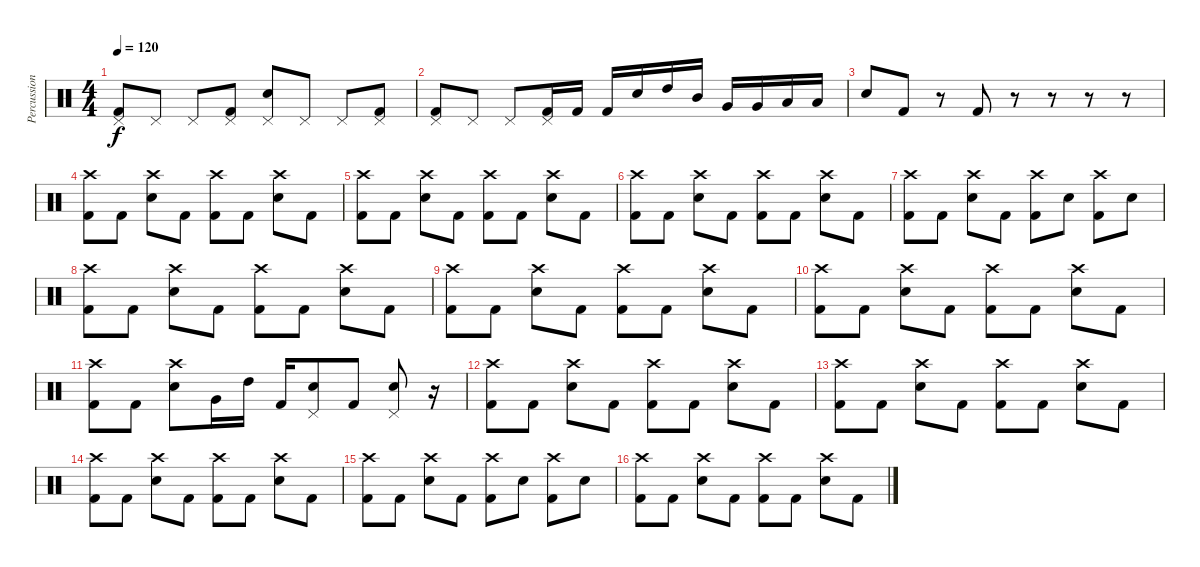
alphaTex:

\track ("Percussion" "Percussion") {instrument percussion}
\staff {score}
\articulation defaults
\ts (4 4)
\tempo 120
\clef neutral
\ks c
("Pedal Hi-Hat (hit)" "Kick (hit) 2").8{dy f} "Pedal Hi-Hat (hit)".8 "Pedal Hi-Hat (hit)".8 ("Pedal Hi-Hat (hit)" "Kick (hit) 2").8 ("Pedal Hi-Hat (hit)" "Electric Snare (hit)").8 "Pedal Hi-Hat (hit)".8 "Pedal Hi-Hat (hit)".8 ("Pedal Hi-Hat (hit)" "Kick (hit) 2").8 |
("Pedal Hi-Hat (hit)" "Kick (hit) 2").8 "Pedal Hi-Hat (hit)".8 "Pedal Hi-Hat (hit)".8 ("Pedal Hi-Hat (hit)" "Kick (hit) 2").16 "Kick (hit) 2".16 "Kick (hit) 2".16 "Electric Snare (hit)".16 "High Tom (hit)".16 "Mid Tom (hit)".16 "Very Low Tom (hit)".16 "Very Low Tom (hit)".16 "Low Floor Tom (hit)".16 "Low Floor Tom (hit)".16 |
"Electric Snare (hit)".8 "Kick (hit) 2".8 r.8 "Kick (hit) 2".8 r.8 r.8 r.8 r.8 |
("Crash high (hit)" "Kick (hit) 2").8 "Kick (hit) 2".8 ("Crash high (hit)" "Electric Snare (hit)").8 "Kick (hit) 2".8 ("Crash high (hit)" "Kick (hit) 2").8 "Kick (hit) 2".8 ("Crash high (hit)" "Electric Snare (hit)").8 "Kick (hit) 2".8 |
("Crash high (hit)" "Kick (hit) 2").8 "Kick (hit) 2".8 ("Crash high (hit)" "Electric Snare (hit)").8 "Kick (hit) 2".8 ("Crash high (hit)" "Kick (hit) 2").8 "Kick (hit) 2".8 ("Crash high (hit)" "Electric Snare (hit)").8 "Kick (hit) 2".8 |
("Crash high (hit)" "Kick (hit) 2").8 "Kick (hit) 2".8 ("Crash high (hit)" "Electric Snare (hit)").8 "Kick (hit) 2".8 ("Crash high (hit)" "Kick (hit) 2").8 "Kick (hit) 2".8 ("Crash high (hit)" "Electric Snare (hit)").8 "Kick (hit) 2".8 |
("Crash high (hit)" "Kick (hit) 2").8 "Kick (hit) 2".8 ("Crash high (hit)" "Electric Snare (hit)").8 "Kick (hit) 2".8 ("Crash high (hit)" "Kick (hit) 2").8 "Electric Snare (hit)".8 ("Crash high (hit)" "Kick (hit) 2").8 "Electric Snare (hit)".8 |
("Crash high (hit)" "Kick (hit) 2").8 "Kick (hit) 2".8 ("Crash high (hit)" "Electric Snare (hit)").8 "Kick (hit) 2".8 ("Crash high (hit)" "Kick (hit) 2").8 "Kick (hit) 2".8 ("Crash high (hit)" "Electric Snare (hit)").8 "Kick (hit) 2".8 |
("Crash high (hit)" "Kick (hit) 2").8 "Kick (hit) 2".8 ("Crash high (hit)" "Electric Snare (hit)").8 "Kick (hit) 2".8 ("Crash high (hit)" "Kick (hit) 2").8 "Kick (hit) 2".8 ("Crash high (hit)" "Electric Snare (hit)").8 "Kick (hit) 2".8 |
("Crash high (hit)" "Kick (hit) 2").8 "Kick (hit) 2".8 ("Crash high (hit)" "Electric Snare (hit)").8 "Kick (hit) 2".8 ("Crash high (hit)" "Kick (hit) 2").8 "Kick (hit) 2".8 ("Crash high (hit)" "Electric Snare (hit)").8 "Kick (hit) 2".8 |
("Crash high (hit)" "Kick (hit) 2").8 "Kick (hit) 2".8 ("Crash high (hit)" "Electric Snare (hit)").8 "Very Low Tom (hit)".16 "High Tom (hit)".16 "Kick (hit) 2".16 ("Pedal Hi-Hat (hit)" "Electric Snare (hit)").8 "Kick (hit) 2".8 ("Pedal Hi-Hat (hit)" "Electric Snare (hit)").8 r.16 |
("Crash high (hit)" "Kick (hit) 2").8 "Kick (hit) 2".8 ("Crash high (hit)" "Electric Snare (hit)").8 "Kick (hit) 2".8 ("Crash high (hit)" "Kick (hit) 2").8 "Kick (hit) 2".8 ("Crash high (hit)" "Electric Snare (hit)").8 "Kick (hit) 2".8 |
("Crash high (hit)" "Kick (hit) 2").8 "Kick (hit) 2".8 ("Crash high (hit)" "Electric Snare (hit)").8 "Kick (hit) 2".8 ("Crash high (hit)" "Kick (hit) 2").8 "Kick (hit) 2".8 ("Crash high (hit)" "Electric Snare (hit)").8 "Kick (hit) 2".8 |
("Crash high (hit)" "Kick (hit) 2").8 "Kick (hit) 2".8 ("Crash high (hit)" "Electric Snare (hit)").8 "Kick (hit) 2".8 ("Crash high (hit)" "Kick (hit) 2").8 "Kick (hit) 2".8 ("Crash high (hit)" "Electric Snare (hit)").8 "Kick (hit) 2".8 |
("Crash high (hit)" "Kick (hit) 2").8 "Kick (hit) 2".8 ("Crash high (hit)" "Electric Snare (hit)").8 "Kick (hit) 2".8 ("Crash high (hit)" "Kick (hit) 2").8 "Electric Snare (hit)".8 ("Crash high (hit)" "Kick (hit) 2").8 "Electric Snare (hit)".8 |
("Crash high (hit)" "Kick (hit) 2").8 "Kick (hit) 2".8 ("Crash high (hit)" "Electric Snare (hit)").8 "Kick (hit) 2".8 ("Crash high (hit)" "Kick (hit) 2").8 "Kick (hit) 2".8 ("Crash high (hit)" "Electric Snare (hit)").8 "Kick (hit) 2".8
